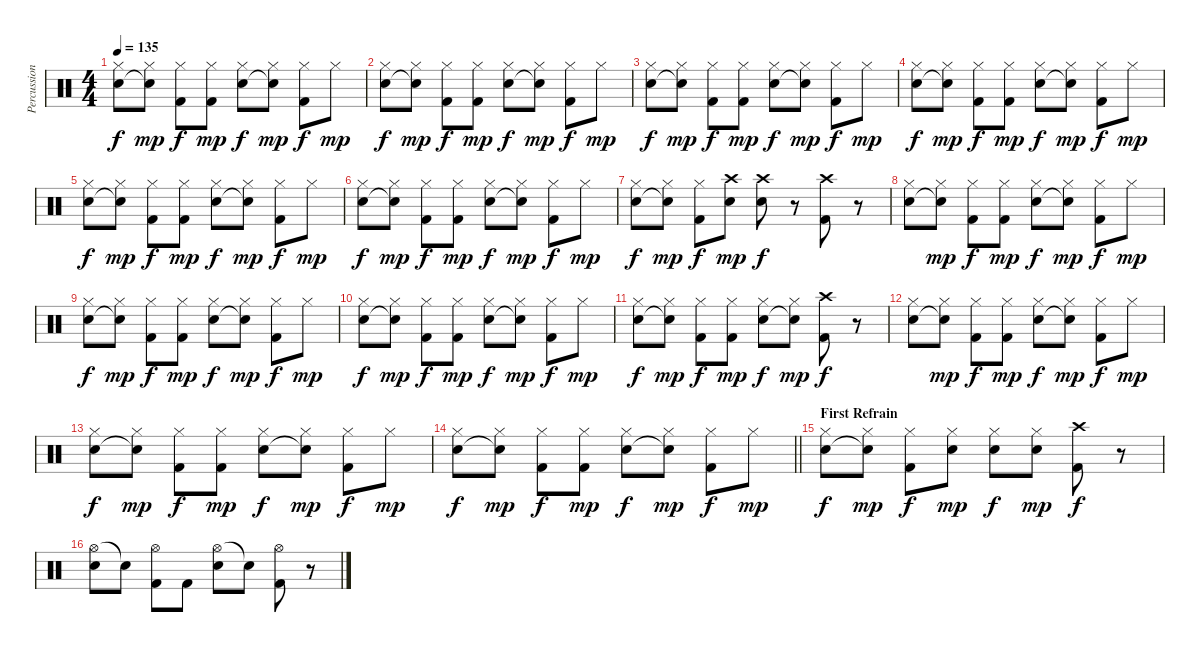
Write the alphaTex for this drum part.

\track ("Percussion" "Percussion") {instrument percussion}
\staff {score}
\articulation defaults
\ts (4 4)
\tempo 135
\clef neutral
\ks c
("Hi-Hat (closed)" "Electric Snare (hit)").8{dy f} ("Hi-Hat (closed)" "Electric Snare (hit)"{t}).8{dy mp} ("Hi-Hat (closed)" "Kick (hit) 2").8{dy f} ("Hi-Hat (closed)" "Kick (hit) 2").8{dy mp} ("Hi-Hat (closed)" "Electric Snare (hit)").8{dy f} ("Hi-Hat (closed)" "Electric Snare (hit)"{t}).8{dy mp} ("Hi-Hat (closed)" "Kick (hit) 2").8{dy f} "Hi-Hat (closed)".8{dy mp} |
("Hi-Hat (closed)" "Electric Snare (hit)").8{dy f} ("Hi-Hat (closed)" "Electric Snare (hit)"{t}).8{dy mp} ("Hi-Hat (closed)" "Kick (hit) 2").8{dy f} ("Hi-Hat (closed)" "Kick (hit) 2").8{dy mp} ("Hi-Hat (closed)" "Electric Snare (hit)").8{dy f} ("Hi-Hat (closed)" "Electric Snare (hit)"{t}).8{dy mp} ("Hi-Hat (closed)" "Kick (hit) 2").8{dy f} "Hi-Hat (closed)".8{dy mp} |
("Hi-Hat (closed)" "Electric Snare (hit)").8{dy f} ("Hi-Hat (closed)" "Electric Snare (hit)"{t}).8{dy mp} ("Hi-Hat (closed)" "Kick (hit) 2").8{dy f} ("Hi-Hat (closed)" "Kick (hit) 2").8{dy mp} ("Hi-Hat (closed)" "Electric Snare (hit)").8{dy f} ("Hi-Hat (closed)" "Electric Snare (hit)"{t}).8{dy mp} ("Hi-Hat (closed)" "Kick (hit) 2").8{dy f} "Hi-Hat (closed)".8{dy mp} |
("Hi-Hat (closed)" "Electric Snare (hit)").8{dy f} ("Hi-Hat (closed)" "Electric Snare (hit)"{t}).8{dy mp} ("Hi-Hat (closed)" "Kick (hit) 2").8{dy f} ("Hi-Hat (closed)" "Kick (hit) 2").8{dy mp} ("Hi-Hat (closed)" "Electric Snare (hit)").8{dy f} ("Hi-Hat (closed)" "Electric Snare (hit)"{t}).8{dy mp} ("Hi-Hat (closed)" "Kick (hit) 2").8{dy f} "Hi-Hat (closed)".8{dy mp} |
("Hi-Hat (closed)" "Electric Snare (hit)").8{dy f} ("Hi-Hat (closed)" "Electric Snare (hit)"{t}).8{dy mp} ("Hi-Hat (closed)" "Kick (hit) 2").8{dy f} ("Hi-Hat (closed)" "Kick (hit) 2").8{dy mp} ("Hi-Hat (closed)" "Electric Snare (hit)").8{dy f} ("Hi-Hat (closed)" "Electric Snare (hit)"{t}).8{dy mp} ("Hi-Hat (closed)" "Kick (hit) 2").8{dy f} "Hi-Hat (closed)".8{dy mp} |
("Hi-Hat (closed)" "Electric Snare (hit)").8{dy f} ("Hi-Hat (closed)" "Electric Snare (hit)"{t}).8{dy mp} ("Hi-Hat (closed)" "Kick (hit) 2").8{dy f} ("Hi-Hat (closed)" "Kick (hit) 2").8{dy mp} ("Hi-Hat (closed)" "Electric Snare (hit)").8{dy f} ("Hi-Hat (closed)" "Electric Snare (hit)"{t}).8{dy mp} ("Hi-Hat (closed)" "Kick (hit) 2").8{dy f} "Hi-Hat (closed)".8{dy mp} |
("Hi-Hat (closed)" "Electric Snare (hit)").8{dy f} ("Hi-Hat (closed)" "Electric Snare (hit)"{t}).8{dy mp} ("Hi-Hat (closed)" "Kick (hit) 2").8{dy f} ("Crash high (hit)" "Electric Snare (hit)").8{dy mp} ("Crash high (hit)" "Electric Snare (hit)").8{dy f} r.8 ("Crash high (hit)" "Kick (hit) 2").8 r.8 |
("Hi-Hat (closed)" "Electric Snare (hit)").8 ("Hi-Hat (closed)" "Electric Snare (hit)"{t}).8{dy mp} ("Hi-Hat (closed)" "Kick (hit) 2").8{dy f} ("Hi-Hat (closed)" "Kick (hit) 2").8{dy mp} ("Hi-Hat (closed)" "Electric Snare (hit)").8{dy f} ("Hi-Hat (closed)" "Electric Snare (hit)"{t}).8{dy mp} ("Hi-Hat (closed)" "Kick (hit) 2").8{dy f} "Hi-Hat (closed)".8{dy mp} |
("Hi-Hat (closed)" "Electric Snare (hit)").8{dy f} ("Hi-Hat (closed)" "Electric Snare (hit)"{t}).8{dy mp} ("Hi-Hat (closed)" "Kick (hit) 2").8{dy f} ("Hi-Hat (closed)" "Kick (hit) 2").8{dy mp} ("Hi-Hat (closed)" "Electric Snare (hit)").8{dy f} ("Hi-Hat (closed)" "Electric Snare (hit)"{t}).8{dy mp} ("Hi-Hat (closed)" "Kick (hit) 2").8{dy f} "Hi-Hat (closed)".8{dy mp} |
("Hi-Hat (closed)" "Electric Snare (hit)").8{dy f} ("Hi-Hat (closed)" "Electric Snare (hit)"{t}).8{dy mp} ("Hi-Hat (closed)" "Kick (hit) 2").8{dy f} ("Hi-Hat (closed)" "Kick (hit) 2").8{dy mp} ("Hi-Hat (closed)" "Electric Snare (hit)").8{dy f} ("Hi-Hat (closed)" "Electric Snare (hit)"{t}).8{dy mp} ("Hi-Hat (closed)" "Kick (hit) 2").8{dy f} "Hi-Hat (closed)".8{dy mp} |
("Hi-Hat (closed)" "Electric Snare (hit)").8{dy f} ("Hi-Hat (closed)" "Electric Snare (hit)"{t}).8{dy mp} ("Hi-Hat (closed)" "Kick (hit) 2").8{dy f} ("Hi-Hat (closed)" "Kick (hit) 2").8{dy mp} ("Hi-Hat (closed)" "Electric Snare (hit)").8{dy f} ("Hi-Hat (closed)" "Electric Snare (hit)"{t}).8{dy mp} ("Crash high (hit)" "Kick (hit) 2").8{dy f} r.8 |
("Hi-Hat (closed)" "Electric Snare (hit)").8 ("Hi-Hat (closed)" "Electric Snare (hit)"{t}).8{dy mp} ("Hi-Hat (closed)" "Kick (hit) 2").8{dy f} ("Hi-Hat (closed)" "Kick (hit) 2").8{dy mp} ("Hi-Hat (closed)" "Electric Snare (hit)").8{dy f} ("Hi-Hat (closed)" "Electric Snare (hit)"{t}).8{dy mp} ("Hi-Hat (closed)" "Kick (hit) 2").8{dy f} "Hi-Hat (closed)".8{dy mp} |
("Hi-Hat (closed)" "Electric Snare (hit)").8{dy f} ("Hi-Hat (closed)" "Electric Snare (hit)"{t}).8{dy mp} ("Hi-Hat (closed)" "Kick (hit) 2").8{dy f} ("Hi-Hat (closed)" "Kick (hit) 2").8{dy mp} ("Hi-Hat (closed)" "Electric Snare (hit)").8{dy f} ("Hi-Hat (closed)" "Electric Snare (hit)"{t}).8{dy mp} ("Hi-Hat (closed)" "Kick (hit) 2").8{dy f} "Hi-Hat (closed)".8{dy mp} |
\barLineRight lightlight
("Hi-Hat (closed)" "Electric Snare (hit)").8{dy f} ("Hi-Hat (closed)" "Electric Snare (hit)"{t}).8{dy mp} ("Hi-Hat (closed)" "Kick (hit) 2").8{dy f} ("Hi-Hat (closed)" "Kick (hit) 2").8{dy mp} ("Hi-Hat (closed)" "Electric Snare (hit)").8{dy f} ("Hi-Hat (closed)" "Electric Snare (hit)"{t}).8{dy mp} ("Hi-Hat (closed)" "Kick (hit) 2").8{dy f} "Hi-Hat (closed)".8{dy mp} |
\section ("" "First Refrain")
("Hi-Hat (closed)" "Electric Snare (hit)").8{dy f} ("Hi-Hat (closed)" "Electric Snare (hit)"{t}).8{dy mp} ("Hi-Hat (closed)" "Kick (hit) 2").8{dy f} ("Hi-Hat (closed)" "Electric Snare (hit)").8{dy mp} ("Hi-Hat (closed)" "Electric Snare (hit)").8{dy f} ("Hi-Hat (closed)" "Electric Snare (hit)").8{dy mp} ("Crash high (hit)" "Kick (hit) 2").8{dy f} r.8 |
("Hi-Hat (open)" "Electric Snare (hit)").8 "Electric Snare (hit)"{t}.8 ("Hi-Hat (open)" "Kick (hit) 2").8 "Kick (hit) 2".8 ("Hi-Hat (open)" "Electric Snare (hit)").8 "Electric Snare (hit)"{t}.8 ("Hi-Hat (open)" "Kick (hit) 2").8 r.8
